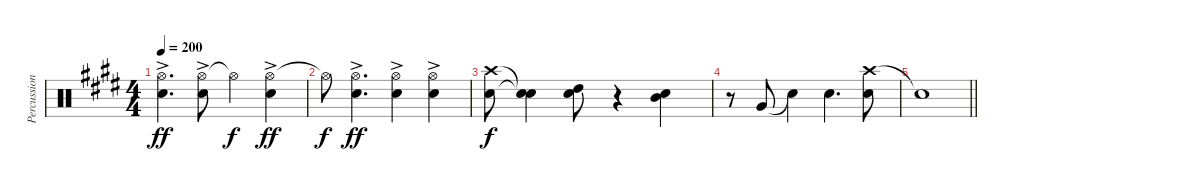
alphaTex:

\track ("Percussion - other" "Percussion") {instrument percussion}
\staff {score}
\articulation defaults
\ts (4 4)
\tempo 200
\clef neutral
\ks e
("Hi-Hat (open)"{ac} "Snare (hit) 2").4{d dy ff} ("Hi-Hat (open)"{ac} "Snare (hit) 2").8 "Hi-Hat (open)"{t}.4{dy f} ("Hi-Hat (open)"{ac} "Snare (hit) 2").4{dy ff} |
"Hi-Hat (open)"{t}.8{dy f} ("Hi-Hat (open)"{ac} "Snare (hit) 2").4{d dy ff} ("Hi-Hat (open)"{ac} "Snare (hit) 2").4 ("Hi-Hat (open)"{ac} "Snare (hit) 2").4 |
("Crash high (hit)" "Snare (hit) 2").8{dy f} ("Snare (hit)"{t} "Snare (hit)"{t}).4 ("High Tom (hit)" "Snare (hit) 2").8 r.4 ("Mid Tom (hit)" "Snare (hit) 2").4 |
r.8 "Very Low Tom (hit)".8 "Snare (hit)"{t}.4 "Snare (hit) 2".4{d} ("Crash high (hit)" "Snare (hit) 2").8 |
\barLineRight lightlight "Snare (hit)"{t}.1
